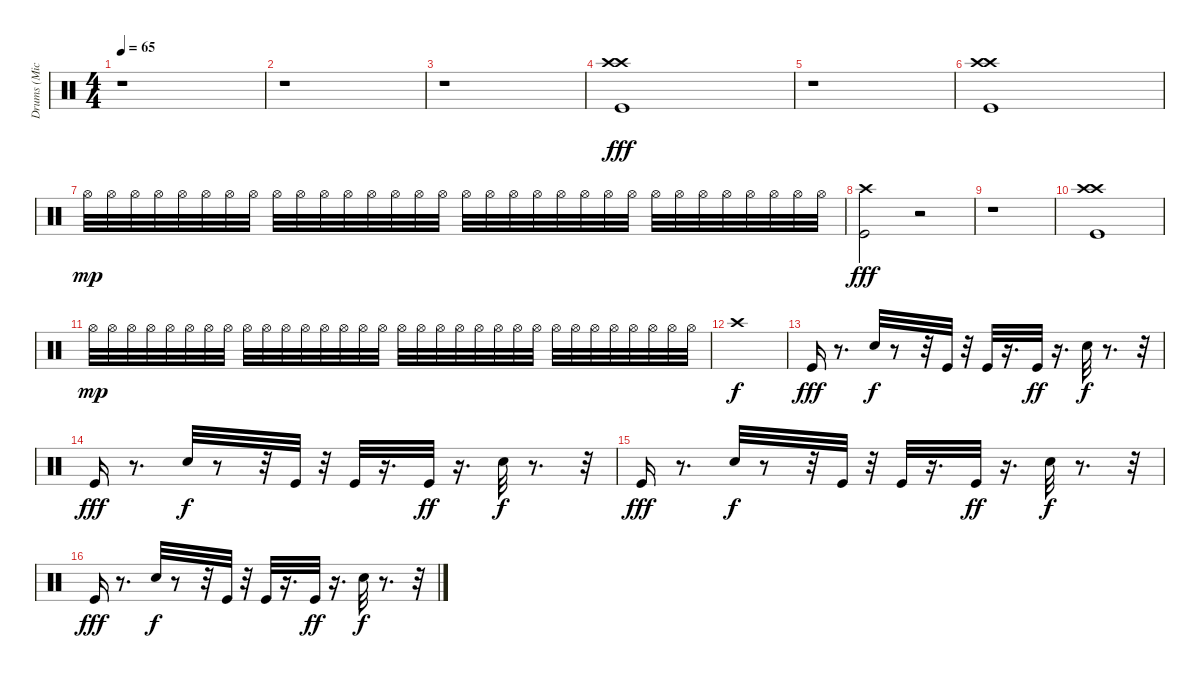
\track ("Drums (Michael Giles)" "Drums (Mic") {instrument percussion}
\staff {score}
\articulation defaults
\ts (4 4)
\tempo 65
\clef neutral
\ks c
r.1{dy fff} |
r.1 |
r.1 |
("Crash high (hit)" "Kick (hit)" "Crash high (hit)").1 |
r.1 |
("Crash high (hit)" "Kick (hit)" "Crash high (hit)").1 |
"Hi-Hat (open)".32{dy mp volume 1} "Hi-Hat (open)".32{volume 2} "Hi-Hat (open)".32{volume 2} "Hi-Hat (open)".32{volume 2} "Hi-Hat (open)".32{volume 3} "Hi-Hat (open)".32{volume 3} "Hi-Hat (open)".32{volume 3} "Hi-Hat (open)".32{volume 4} "Hi-Hat (open)".32{volume 4} "Hi-Hat (open)".32{volume 4} "Hi-Hat (open)".32{volume 5} "Hi-Hat (open)".32{volume 5} "Hi-Hat (open)".32{volume 5} "Hi-Hat (open)".32{volume 6} "Hi-Hat (open)".32{volume 6} "Hi-Hat (open)".32{volume 6} "Hi-Hat (open)".32{volume 7} "Hi-Hat (open)".32{volume 7} "Hi-Hat (open)".32{volume 8} "Hi-Hat (open)".32{volume 8} "Hi-Hat (open)".32{volume 8} "Hi-Hat (open)".32{volume 8} "Hi-Hat (open)".32{volume 9} "Hi-Hat (open)".32{volume 9} "Hi-Hat (open)".32{volume 10} "Hi-Hat (open)".32{volume 10} "Hi-Hat (open)".32{volume 10} "Hi-Hat (open)".32{volume 11} "Hi-Hat (open)".32{volume 11} "Hi-Hat (open)".32{volume 11} "Hi-Hat (open)".32{volume 12} "Hi-Hat (open)".32{volume 12} |
("Crash high (hit)" "Kick (hit)").2{dy fff volume 12} r.2 |
r.1 |
("Crash high (hit)" "Kick (hit)" "Crash high (hit)").1 |
"Hi-Hat (open)".32{dy mp volume 1} "Hi-Hat (open)".32{volume 2} "Hi-Hat (open)".32{volume 2} "Hi-Hat (open)".32{volume 2} "Hi-Hat (open)".32{volume 3} "Hi-Hat (open)".32{volume 3} "Hi-Hat (open)".32{volume 3} "Hi-Hat (open)".32{volume 4} "Hi-Hat (open)".32{volume 4} "Hi-Hat (open)".32{volume 4} "Hi-Hat (open)".32{volume 5} "Hi-Hat (open)".32{volume 5} "Hi-Hat (open)".32{volume 5} "Hi-Hat (open)".32{volume 6} "Hi-Hat (open)".32{volume 6} "Hi-Hat (open)".32{volume 6} "Hi-Hat (open)".32{volume 7} "Hi-Hat (open)".32{volume 7} "Hi-Hat (open)".32{volume 8} "Hi-Hat (open)".32{volume 8} "Hi-Hat (open)".32{volume 8} "Hi-Hat (open)".32{volume 8} "Hi-Hat (open)".32{volume 9} "Hi-Hat (open)".32{volume 9} "Hi-Hat (open)".32{volume 10} "Hi-Hat (open)".32{volume 10} "Hi-Hat (open)".32{volume 10} "Hi-Hat (open)".32{volume 11} "Hi-Hat (open)".32{volume 11} "Hi-Hat (open)".32{volume 11} "Hi-Hat (open)".32{volume 12} "Hi-Hat (open)".32{volume 12} |
"Crash high (hit)".1{dy f volume 12} |
"Kick (hit)".16{dy fff volume 16} r.8{d} "Snare (hit) 2".32{dy f} r.8 r.32 "Kick (hit)".32 r.32 "Kick (hit)".32 r.16{d} "Kick (hit)".32{dy ff} r.16{d} "Snare (hit) 2".32{dy f} r.8{d} r.32 |
"Kick (hit)".16{dy fff} r.8{d} "Snare (hit) 2".32{dy f} r.8 r.32 "Kick (hit)".32 r.32 "Kick (hit)".32 r.16{d} "Kick (hit)".32{dy ff} r.16{d} "Snare (hit) 2".32{dy f} r.8{d} r.32 |
"Kick (hit)".16{dy fff} r.8{d} "Snare (hit) 2".32{dy f} r.8 r.32 "Kick (hit)".32 r.32 "Kick (hit)".32 r.16{d} "Kick (hit)".32{dy ff} r.16{d} "Snare (hit) 2".32{dy f} r.8{d} r.32 |
"Kick (hit)".16{dy fff} r.8{d} "Snare (hit) 2".32{dy f} r.8 r.32 "Kick (hit)".32 r.32 "Kick (hit)".32 r.16{d} "Kick (hit)".32{dy ff} r.16{d} "Snare (hit) 2".32{dy f} r.8{d} r.32
